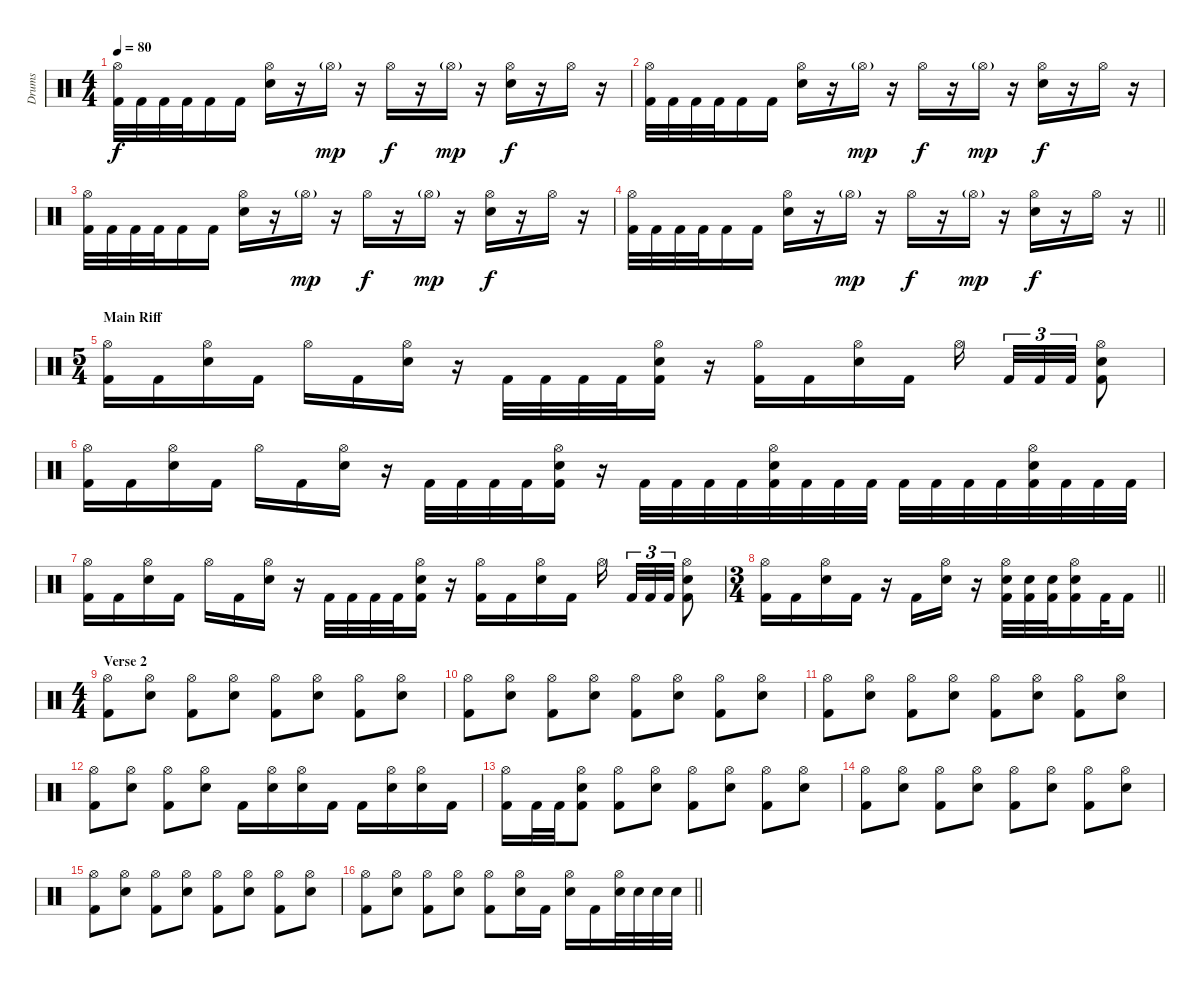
\track ("Drums" "Drums") {instrument percussion}
\staff {score}
\articulation defaults
\ts (4 4)
\tempo 80
\clef neutral
\ks c
("Hi-Hat (open)" "Kick (hit) 2").32{dy f} "Kick (hit) 2".32 "Kick (hit) 2".32 "Kick (hit) 2".32 "Kick (hit) 2".16 "Kick (hit) 2".16 ("Hi-Hat (open)" "Electric Snare (hit)").16 r.16 "Hi-Hat (open)"{g}.16{dy mp} r.16 "Hi-Hat (open)".16{dy f} r.16 "Hi-Hat (open)"{g}.16{dy mp} r.16 ("Hi-Hat (open)" "Electric Snare (hit)").16{dy f} r.16 "Hi-Hat (open)".16 r.16 |
("Hi-Hat (open)" "Kick (hit) 2").32 "Kick (hit) 2".32 "Kick (hit) 2".32 "Kick (hit) 2".32 "Kick (hit) 2".16 "Kick (hit) 2".16 ("Hi-Hat (open)" "Electric Snare (hit)").16 r.16 "Hi-Hat (open)"{g}.16{dy mp} r.16 "Hi-Hat (open)".16{dy f} r.16 "Hi-Hat (open)"{g}.16{dy mp} r.16 ("Hi-Hat (open)" "Electric Snare (hit)").16{dy f} r.16 "Hi-Hat (open)".16 r.16 |
("Hi-Hat (open)" "Kick (hit) 2").32 "Kick (hit) 2".32 "Kick (hit) 2".32 "Kick (hit) 2".32 "Kick (hit) 2".16 "Kick (hit) 2".16 ("Hi-Hat (open)" "Electric Snare (hit)").16 r.16 "Hi-Hat (open)"{g}.16{dy mp} r.16 "Hi-Hat (open)".16{dy f} r.16 "Hi-Hat (open)"{g}.16{dy mp} r.16 ("Hi-Hat (open)" "Electric Snare (hit)").16{dy f} r.16 "Hi-Hat (open)".16 r.16 |
\barLineRight lightlight
("Hi-Hat (open)" "Kick (hit) 2").32 "Kick (hit) 2".32 "Kick (hit) 2".32 "Kick (hit) 2".32 "Kick (hit) 2".16 "Kick (hit) 2".16 ("Hi-Hat (open)" "Electric Snare (hit)").16 r.16 "Hi-Hat (open)"{g}.16{dy mp} r.16 "Hi-Hat (open)".16{dy f} r.16 "Hi-Hat (open)"{g}.16{dy mp} r.16 ("Hi-Hat (open)" "Electric Snare (hit)").16{dy f} r.16 "Hi-Hat (open)".16 r.16 |
\ts (5 4)
\section ("" "Main Riff")
("Hi-Hat (open)" "Kick (hit) 2").16 "Kick (hit) 2".16 ("Hi-Hat (open)" "Electric Snare (hit)").16 "Kick (hit) 2".16 "Hi-Hat (open)".16 "Kick (hit) 2".16 ("Hi-Hat (open)" "Electric Snare (hit)").16 r.16 "Kick (hit) 2".32 "Kick (hit) 2".32 "Kick (hit) 2".32 "Kick (hit) 2".32 ("Hi-Hat (open)" "Electric Snare (hit)" "Kick (hit) 2").16 r.16 ("Hi-Hat (open)" "Kick (hit) 2").16 "Kick (hit) 2".16 ("Hi-Hat (open)" "Electric Snare (hit)").16 "Kick (hit) 2".16 "Hi-Hat (open)".16{beam splitsecondary} "Kick (hit) 2".32{tu (3 2)} "Kick (hit) 2".32{tu (3 2)} "Kick (hit) 2".32{tu (3 2)} ("Hi-Hat (open)" "Electric Snare (hit)" "Kick (hit) 2").8 |
("Hi-Hat (open)" "Kick (hit) 2").16 "Kick (hit) 2".16 ("Hi-Hat (open)" "Electric Snare (hit)").16 "Kick (hit) 2".16 "Hi-Hat (open)".16 "Kick (hit) 2".16 ("Hi-Hat (open)" "Electric Snare (hit)").16 r.16 "Kick (hit) 2".32 "Kick (hit) 2".32 "Kick (hit) 2".32 "Kick (hit) 2".32 ("Hi-Hat (open)" "Electric Snare (hit)" "Kick (hit) 2").16 r.16 "Kick (hit) 2".32 "Kick (hit) 2".32 "Kick (hit) 2".32 "Kick (hit) 2".32 ("Hi-Hat (open)" "Electric Snare (hit)" "Kick (hit) 2").32 "Kick (hit) 2".32 "Kick (hit) 2".32 "Kick (hit) 2".32 "Kick (hit) 2".32 "Kick (hit) 2".32 "Kick (hit) 2".32 "Kick (hit) 2".32 ("Hi-Hat (open)" "Electric Snare (hit)" "Kick (hit) 2").32 "Kick (hit) 2".32 "Kick (hit) 2".32 "Kick (hit) 2".32 |
("Hi-Hat (open)" "Kick (hit) 2").16 "Kick (hit) 2".16 ("Hi-Hat (open)" "Electric Snare (hit)").16 "Kick (hit) 2".16 "Hi-Hat (open)".16 "Kick (hit) 2".16 ("Hi-Hat (open)" "Electric Snare (hit)").16 r.16 "Kick (hit) 2".32 "Kick (hit) 2".32 "Kick (hit) 2".32 "Kick (hit) 2".32 ("Hi-Hat (open)" "Electric Snare (hit)" "Kick (hit) 2").16 r.16 ("Hi-Hat (open)" "Kick (hit) 2").16 "Kick (hit) 2".16 ("Hi-Hat (open)" "Electric Snare (hit)").16 "Kick (hit) 2".16 "Hi-Hat (open)".16{beam splitsecondary} "Kick (hit) 2".32{tu (3 2)} "Kick (hit) 2".32{tu (3 2)} "Kick (hit) 2".32{tu (3 2)} ("Hi-Hat (open)" "Electric Snare (hit)" "Kick (hit) 2").8 |
\ts (3 4)
\barLineRight lightlight
("Hi-Hat (open)" "Kick (hit) 2").16 "Kick (hit) 2".16 ("Hi-Hat (open)" "Electric Snare (hit)").16 "Kick (hit) 2".16 r.16 "Kick (hit) 2".16 ("Hi-Hat (open)" "Electric Snare (hit)").16 r.16 ("Hi-Hat (open)" "Electric Snare (hit)" "Kick (hit) 2").32 ("Electric Snare (hit)" "Kick (hit) 2").32 ("Electric Snare (hit)" "Kick (hit) 2").32 ("Hi-Hat (open)" "Electric Snare (hit)" "Kick (hit) 2").16 "Kick (hit) 2".32 "Kick (hit) 2".16 |
\ts (4 4)
\section ("" "Verse 2")
("Hi-Hat (open)" "Kick (hit) 2").8 ("Hi-Hat (open)" "Electric Snare (hit)").8 ("Hi-Hat (open)" "Kick (hit) 2").8 ("Hi-Hat (open)" "Electric Snare (hit)").8 ("Hi-Hat (open)" "Kick (hit) 2").8 ("Hi-Hat (open)" "Electric Snare (hit)").8 ("Hi-Hat (open)" "Kick (hit) 2").8 ("Hi-Hat (open)" "Electric Snare (hit)").8 |
("Hi-Hat (open)" "Kick (hit) 2").8 ("Hi-Hat (open)" "Electric Snare (hit)").8 ("Hi-Hat (open)" "Kick (hit) 2").8 ("Hi-Hat (open)" "Electric Snare (hit)").8 ("Hi-Hat (open)" "Kick (hit) 2").8 ("Hi-Hat (open)" "Electric Snare (hit)").8 ("Hi-Hat (open)" "Kick (hit) 2").8 ("Hi-Hat (open)" "Electric Snare (hit)").8 |
("Hi-Hat (open)" "Kick (hit) 2").8 ("Hi-Hat (open)" "Electric Snare (hit)").8 ("Hi-Hat (open)" "Kick (hit) 2").8 ("Hi-Hat (open)" "Electric Snare (hit)").8 ("Hi-Hat (open)" "Kick (hit) 2").8 ("Hi-Hat (open)" "Electric Snare (hit)").8 ("Hi-Hat (open)" "Kick (hit) 2").8 ("Hi-Hat (open)" "Electric Snare (hit)").8 |
("Hi-Hat (open)" "Kick (hit) 2").8 ("Hi-Hat (open)" "Electric Snare (hit)").8 ("Hi-Hat (open)" "Kick (hit) 2").8 ("Hi-Hat (open)" "Electric Snare (hit)").8 "Kick (hit) 2".16 ("Hi-Hat (open)" "Electric Snare (hit)").16 ("Hi-Hat (open)" "Electric Snare (hit)").16 "Kick (hit) 2".16 "Kick (hit) 2".16 ("Hi-Hat (open)" "Electric Snare (hit)").16 ("Hi-Hat (open)" "Electric Snare (hit)").16 "Kick (hit) 2".16 |
("Hi-Hat (open)" "Kick (hit) 2").16 "Kick (hit) 2".32 "Kick (hit) 2".32 ("Hi-Hat (open)" "Electric Snare (hit)" "Kick (hit) 2").8 ("Hi-Hat (open)" "Kick (hit) 2").8 ("Hi-Hat (open)" "Electric Snare (hit)").8 ("Hi-Hat (open)" "Kick (hit) 2").8 ("Hi-Hat (open)" "Electric Snare (hit)").8 ("Hi-Hat (open)" "Kick (hit) 2").8 ("Hi-Hat (open)" "Electric Snare (hit)").8 |
("Hi-Hat (open)" "Kick (hit) 2").8 ("Hi-Hat (open)" "Electric Snare (hit)").8 ("Hi-Hat (open)" "Kick (hit) 2").8 ("Hi-Hat (open)" "Electric Snare (hit)").8 ("Hi-Hat (open)" "Kick (hit) 2").8 ("Hi-Hat (open)" "Electric Snare (hit)").8 ("Hi-Hat (open)" "Kick (hit) 2").8 ("Hi-Hat (open)" "Electric Snare (hit)").8 |
("Hi-Hat (open)" "Kick (hit) 2").8 ("Hi-Hat (open)" "Electric Snare (hit)").8 ("Hi-Hat (open)" "Kick (hit) 2").8 ("Hi-Hat (open)" "Electric Snare (hit)").8 ("Hi-Hat (open)" "Kick (hit) 2").8 ("Hi-Hat (open)" "Electric Snare (hit)").8 ("Hi-Hat (open)" "Kick (hit) 2").8 ("Hi-Hat (open)" "Electric Snare (hit)").8 |
\barLineRight lightlight
("Hi-Hat (open)" "Kick (hit) 2").8 ("Hi-Hat (open)" "Electric Snare (hit)").8 ("Hi-Hat (open)" "Kick (hit) 2").8 ("Hi-Hat (open)" "Electric Snare (hit)").8 ("Hi-Hat (open)" "Kick (hit) 2").8 ("Hi-Hat (open)" "Electric Snare (hit)").16 "Kick (hit) 2".16 ("Hi-Hat (open)" "Electric Snare (hit)").16 "Kick (hit) 2".16 ("Hi-Hat (open)" "Electric Snare (hit)").32 "Electric Snare (hit)".32 "Electric Snare (hit)".32 "Electric Snare (hit)".32
